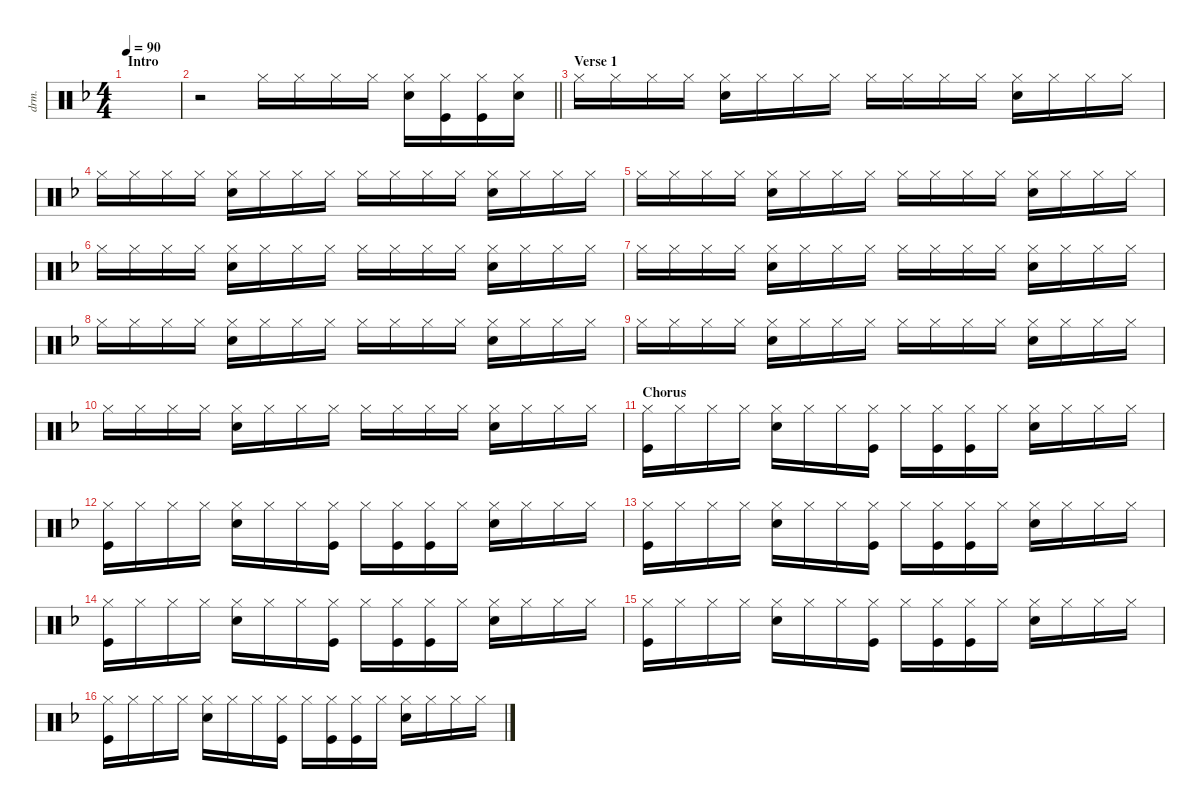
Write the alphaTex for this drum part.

\defaultSystemsLayout 4
\hideDynamics
\bracketExtendMode nobrackets
\track ("Drumkit" "drm.") {instrument percussion}
\staff {score}
\articulation defaults
\ts (4 4)
\section ("" "Intro")
\tempo 90
\clef neutral
\ks f
|
\barLineRight lightlight
r.2 "Hi-Hat (closed)"{acc forcenatural}.16 "Hi-Hat (closed)"{acc forcenatural}.16 "Hi-Hat (closed)"{acc forcenatural}.16 "Hi-Hat (closed)"{acc forcenatural}.16 ("Hi-Hat (closed)"{acc forcenatural} "Snare (hit) 2"{acc forcenatural}).16{dy mf} ("Hi-Hat (closed)"{acc forcenatural} "Kick (hit)"{acc forcenatural}).16 ("Hi-Hat (closed)"{acc forcenatural} "Kick (hit)"{acc forcenatural}).16 ("Hi-Hat (closed)"{acc forcenatural} "Snare (hit) 2"{acc forcenatural}).16 |
\section ("" "Verse 1")
"Hi-Hat (closed)"{acc forcenatural}.16 "Hi-Hat (closed)"{acc forcenatural}.16 "Hi-Hat (closed)"{acc forcenatural}.16 "Hi-Hat (closed)"{acc forcenatural}.16 ("Hi-Hat (closed)"{acc forcenatural} "Snare (hit) 2"{acc forcenatural}).16 "Hi-Hat (closed)"{acc forcenatural}.16 "Hi-Hat (closed)"{acc forcenatural}.16 "Hi-Hat (closed)"{acc forcenatural}.16 "Hi-Hat (closed)"{acc forcenatural}.16 "Hi-Hat (closed)"{acc forcenatural}.16 "Hi-Hat (closed)"{acc forcenatural}.16 "Hi-Hat (closed)"{acc forcenatural}.16 ("Hi-Hat (closed)"{acc forcenatural} "Snare (hit) 2"{acc forcenatural}).16 "Hi-Hat (closed)"{acc forcenatural}.16 "Hi-Hat (closed)"{acc forcenatural}.16 "Hi-Hat (closed)"{acc forcenatural}.16 |
"Hi-Hat (closed)"{acc forcenatural}.16 "Hi-Hat (closed)"{acc forcenatural}.16 "Hi-Hat (closed)"{acc forcenatural}.16 "Hi-Hat (closed)"{acc forcenatural}.16 ("Hi-Hat (closed)"{acc forcenatural} "Snare (hit) 2"{acc forcenatural}).16 "Hi-Hat (closed)"{acc forcenatural}.16 "Hi-Hat (closed)"{acc forcenatural}.16 "Hi-Hat (closed)"{acc forcenatural}.16 "Hi-Hat (closed)"{acc forcenatural}.16 "Hi-Hat (closed)"{acc forcenatural}.16 "Hi-Hat (closed)"{acc forcenatural}.16 "Hi-Hat (closed)"{acc forcenatural}.16 ("Hi-Hat (closed)"{acc forcenatural} "Snare (hit) 2"{acc forcenatural}).16 "Hi-Hat (closed)"{acc forcenatural}.16 "Hi-Hat (closed)"{acc forcenatural}.16 "Hi-Hat (closed)"{acc forcenatural}.16 |
"Hi-Hat (closed)"{acc forcenatural}.16 "Hi-Hat (closed)"{acc forcenatural}.16 "Hi-Hat (closed)"{acc forcenatural}.16 "Hi-Hat (closed)"{acc forcenatural}.16 ("Hi-Hat (closed)"{acc forcenatural} "Snare (hit) 2"{acc forcenatural}).16 "Hi-Hat (closed)"{acc forcenatural}.16 "Hi-Hat (closed)"{acc forcenatural}.16 "Hi-Hat (closed)"{acc forcenatural}.16 "Hi-Hat (closed)"{acc forcenatural}.16 "Hi-Hat (closed)"{acc forcenatural}.16 "Hi-Hat (closed)"{acc forcenatural}.16 "Hi-Hat (closed)"{acc forcenatural}.16 ("Hi-Hat (closed)"{acc forcenatural} "Snare (hit) 2"{acc forcenatural}).16 "Hi-Hat (closed)"{acc forcenatural}.16 "Hi-Hat (closed)"{acc forcenatural}.16 "Hi-Hat (closed)"{acc forcenatural}.16 |
"Hi-Hat (closed)"{acc forcenatural}.16 "Hi-Hat (closed)"{acc forcenatural}.16 "Hi-Hat (closed)"{acc forcenatural}.16 "Hi-Hat (closed)"{acc forcenatural}.16 ("Hi-Hat (closed)"{acc forcenatural} "Snare (hit) 2"{acc forcenatural}).16 "Hi-Hat (closed)"{acc forcenatural}.16 "Hi-Hat (closed)"{acc forcenatural}.16 "Hi-Hat (closed)"{acc forcenatural}.16 "Hi-Hat (closed)"{acc forcenatural}.16 "Hi-Hat (closed)"{acc forcenatural}.16 "Hi-Hat (closed)"{acc forcenatural}.16 "Hi-Hat (closed)"{acc forcenatural}.16 ("Hi-Hat (closed)"{acc forcenatural} "Snare (hit) 2"{acc forcenatural}).16 "Hi-Hat (closed)"{acc forcenatural}.16 "Hi-Hat (closed)"{acc forcenatural}.16 "Hi-Hat (closed)"{acc forcenatural}.16 |
"Hi-Hat (closed)"{acc forcenatural}.16 "Hi-Hat (closed)"{acc forcenatural}.16 "Hi-Hat (closed)"{acc forcenatural}.16 "Hi-Hat (closed)"{acc forcenatural}.16 ("Hi-Hat (closed)"{acc forcenatural} "Snare (hit) 2"{acc forcenatural}).16 "Hi-Hat (closed)"{acc forcenatural}.16 "Hi-Hat (closed)"{acc forcenatural}.16 "Hi-Hat (closed)"{acc forcenatural}.16 "Hi-Hat (closed)"{acc forcenatural}.16 "Hi-Hat (closed)"{acc forcenatural}.16 "Hi-Hat (closed)"{acc forcenatural}.16 "Hi-Hat (closed)"{acc forcenatural}.16 ("Hi-Hat (closed)"{acc forcenatural} "Snare (hit) 2"{acc forcenatural}).16 "Hi-Hat (closed)"{acc forcenatural}.16 "Hi-Hat (closed)"{acc forcenatural}.16 "Hi-Hat (closed)"{acc forcenatural}.16 |
"Hi-Hat (closed)"{acc forcenatural}.16 "Hi-Hat (closed)"{acc forcenatural}.16 "Hi-Hat (closed)"{acc forcenatural}.16 "Hi-Hat (closed)"{acc forcenatural}.16 ("Hi-Hat (closed)"{acc forcenatural} "Snare (hit) 2"{acc forcenatural}).16 "Hi-Hat (closed)"{acc forcenatural}.16 "Hi-Hat (closed)"{acc forcenatural}.16 "Hi-Hat (closed)"{acc forcenatural}.16 "Hi-Hat (closed)"{acc forcenatural}.16 "Hi-Hat (closed)"{acc forcenatural}.16 "Hi-Hat (closed)"{acc forcenatural}.16 "Hi-Hat (closed)"{acc forcenatural}.16 ("Hi-Hat (closed)"{acc forcenatural} "Snare (hit) 2"{acc forcenatural}).16 "Hi-Hat (closed)"{acc forcenatural}.16 "Hi-Hat (closed)"{acc forcenatural}.16 "Hi-Hat (closed)"{acc forcenatural}.16 |
"Hi-Hat (closed)"{acc forcenatural}.16 "Hi-Hat (closed)"{acc forcenatural}.16 "Hi-Hat (closed)"{acc forcenatural}.16 "Hi-Hat (closed)"{acc forcenatural}.16 ("Hi-Hat (closed)"{acc forcenatural} "Snare (hit) 2"{acc forcenatural}).16 "Hi-Hat (closed)"{acc forcenatural}.16 "Hi-Hat (closed)"{acc forcenatural}.16 "Hi-Hat (closed)"{acc forcenatural}.16 "Hi-Hat (closed)"{acc forcenatural}.16 "Hi-Hat (closed)"{acc forcenatural}.16 "Hi-Hat (closed)"{acc forcenatural}.16 "Hi-Hat (closed)"{acc forcenatural}.16 ("Hi-Hat (closed)"{acc forcenatural} "Snare (hit) 2"{acc forcenatural}).16 "Hi-Hat (closed)"{acc forcenatural}.16 "Hi-Hat (closed)"{acc forcenatural}.16 "Hi-Hat (closed)"{acc forcenatural}.16 |
"Hi-Hat (closed)"{acc forcenatural}.16 "Hi-Hat (closed)"{acc forcenatural}.16 "Hi-Hat (closed)"{acc forcenatural}.16 "Hi-Hat (closed)"{acc forcenatural}.16 ("Hi-Hat (closed)"{acc forcenatural} "Snare (hit) 2"{acc forcenatural}).16 "Hi-Hat (closed)"{acc forcenatural}.16 "Hi-Hat (closed)"{acc forcenatural}.16 "Hi-Hat (closed)"{acc forcenatural}.16 "Hi-Hat (closed)"{acc forcenatural}.16 "Hi-Hat (closed)"{acc forcenatural}.16 "Hi-Hat (closed)"{acc forcenatural}.16 "Hi-Hat (closed)"{acc forcenatural}.16 ("Hi-Hat (closed)"{acc forcenatural} "Snare (hit) 2"{acc forcenatural}).16 "Hi-Hat (closed)"{acc forcenatural}.16 "Hi-Hat (closed)"{acc forcenatural}.16 "Hi-Hat (closed)"{acc forcenatural}.16 |
\section ("" "Chorus")
("Hi-Hat (closed)"{acc forcenatural} "Kick (hit)"{acc forcenatural}).16 "Hi-Hat (closed)"{acc forcenatural}.16 "Hi-Hat (closed)"{acc forcenatural}.16 "Hi-Hat (closed)"{acc forcenatural}.16 ("Hi-Hat (closed)"{acc forcenatural} "Snare (hit) 2"{acc forcenatural}).16 "Hi-Hat (closed)"{acc forcenatural}.16 "Hi-Hat (closed)"{acc forcenatural}.16 ("Hi-Hat (closed)"{acc forcenatural} "Kick (hit)"{acc forcenatural}).16 "Hi-Hat (closed)"{acc forcenatural}.16 ("Hi-Hat (closed)"{acc forcenatural} "Kick (hit)"{acc forcenatural}).16 ("Hi-Hat (closed)"{acc forcenatural} "Kick (hit)"{acc forcenatural}).16 "Hi-Hat (closed)"{acc forcenatural}.16 ("Hi-Hat (closed)"{acc forcenatural} "Snare (hit) 2"{acc forcenatural}).16 "Hi-Hat (closed)"{acc forcenatural}.16 "Hi-Hat (closed)"{acc forcenatural}.16 "Hi-Hat (closed)"{acc forcenatural}.16 |
("Hi-Hat (closed)"{acc forcenatural} "Kick (hit)"{acc forcenatural}).16 "Hi-Hat (closed)"{acc forcenatural}.16 "Hi-Hat (closed)"{acc forcenatural}.16 "Hi-Hat (closed)"{acc forcenatural}.16 ("Hi-Hat (closed)"{acc forcenatural} "Snare (hit) 2"{acc forcenatural}).16 "Hi-Hat (closed)"{acc forcenatural}.16 "Hi-Hat (closed)"{acc forcenatural}.16 ("Hi-Hat (closed)"{acc forcenatural} "Kick (hit)"{acc forcenatural}).16 "Hi-Hat (closed)"{acc forcenatural}.16 ("Hi-Hat (closed)"{acc forcenatural} "Kick (hit)"{acc forcenatural}).16 ("Hi-Hat (closed)"{acc forcenatural} "Kick (hit)"{acc forcenatural}).16 "Hi-Hat (closed)"{acc forcenatural}.16 ("Hi-Hat (closed)"{acc forcenatural} "Snare (hit) 2"{acc forcenatural}).16 "Hi-Hat (closed)"{acc forcenatural}.16 "Hi-Hat (closed)"{acc forcenatural}.16 "Hi-Hat (closed)"{acc forcenatural}.16 |
("Hi-Hat (closed)"{acc forcenatural} "Kick (hit)"{acc forcenatural}).16 "Hi-Hat (closed)"{acc forcenatural}.16 "Hi-Hat (closed)"{acc forcenatural}.16 "Hi-Hat (closed)"{acc forcenatural}.16 ("Hi-Hat (closed)"{acc forcenatural} "Snare (hit) 2"{acc forcenatural}).16 "Hi-Hat (closed)"{acc forcenatural}.16 "Hi-Hat (closed)"{acc forcenatural}.16 ("Hi-Hat (closed)"{acc forcenatural} "Kick (hit)"{acc forcenatural}).16 "Hi-Hat (closed)"{acc forcenatural}.16 ("Hi-Hat (closed)"{acc forcenatural} "Kick (hit)"{acc forcenatural}).16 ("Hi-Hat (closed)"{acc forcenatural} "Kick (hit)"{acc forcenatural}).16 "Hi-Hat (closed)"{acc forcenatural}.16 ("Hi-Hat (closed)"{acc forcenatural} "Snare (hit) 2"{acc forcenatural}).16 "Hi-Hat (closed)"{acc forcenatural}.16 "Hi-Hat (closed)"{acc forcenatural}.16 "Hi-Hat (closed)"{acc forcenatural}.16 |
("Hi-Hat (closed)"{acc forcenatural} "Kick (hit)"{acc forcenatural}).16 "Hi-Hat (closed)"{acc forcenatural}.16 "Hi-Hat (closed)"{acc forcenatural}.16 "Hi-Hat (closed)"{acc forcenatural}.16 ("Hi-Hat (closed)"{acc forcenatural} "Snare (hit) 2"{acc forcenatural}).16 "Hi-Hat (closed)"{acc forcenatural}.16 "Hi-Hat (closed)"{acc forcenatural}.16 ("Hi-Hat (closed)"{acc forcenatural} "Kick (hit)"{acc forcenatural}).16 "Hi-Hat (closed)"{acc forcenatural}.16 ("Hi-Hat (closed)"{acc forcenatural} "Kick (hit)"{acc forcenatural}).16 ("Hi-Hat (closed)"{acc forcenatural} "Kick (hit)"{acc forcenatural}).16 "Hi-Hat (closed)"{acc forcenatural}.16 ("Hi-Hat (closed)"{acc forcenatural} "Snare (hit) 2"{acc forcenatural}).16 "Hi-Hat (closed)"{acc forcenatural}.16 "Hi-Hat (closed)"{acc forcenatural}.16 "Hi-Hat (closed)"{acc forcenatural}.16 |
("Hi-Hat (closed)"{acc forcenatural} "Kick (hit)"{acc forcenatural}).16 "Hi-Hat (closed)"{acc forcenatural}.16 "Hi-Hat (closed)"{acc forcenatural}.16 "Hi-Hat (closed)"{acc forcenatural}.16 ("Hi-Hat (closed)"{acc forcenatural} "Snare (hit) 2"{acc forcenatural}).16 "Hi-Hat (closed)"{acc forcenatural}.16 "Hi-Hat (closed)"{acc forcenatural}.16 ("Hi-Hat (closed)"{acc forcenatural} "Kick (hit)"{acc forcenatural}).16 "Hi-Hat (closed)"{acc forcenatural}.16 ("Hi-Hat (closed)"{acc forcenatural} "Kick (hit)"{acc forcenatural}).16 ("Hi-Hat (closed)"{acc forcenatural} "Kick (hit)"{acc forcenatural}).16 "Hi-Hat (closed)"{acc forcenatural}.16 ("Hi-Hat (closed)"{acc forcenatural} "Snare (hit) 2"{acc forcenatural}).16 "Hi-Hat (closed)"{acc forcenatural}.16 "Hi-Hat (closed)"{acc forcenatural}.16 "Hi-Hat (closed)"{acc forcenatural}.16 |
("Hi-Hat (closed)"{acc forcenatural} "Kick (hit)"{acc forcenatural}).16 "Hi-Hat (closed)"{acc forcenatural}.16 "Hi-Hat (closed)"{acc forcenatural}.16 "Hi-Hat (closed)"{acc forcenatural}.16 ("Hi-Hat (closed)"{acc forcenatural} "Snare (hit) 2"{acc forcenatural}).16 "Hi-Hat (closed)"{acc forcenatural}.16 "Hi-Hat (closed)"{acc forcenatural}.16 ("Hi-Hat (closed)"{acc forcenatural} "Kick (hit)"{acc forcenatural}).16 "Hi-Hat (closed)"{acc forcenatural}.16 ("Hi-Hat (closed)"{acc forcenatural} "Kick (hit)"{acc forcenatural}).16 ("Hi-Hat (closed)"{acc forcenatural} "Kick (hit)"{acc forcenatural}).16 "Hi-Hat (closed)"{acc forcenatural}.16 ("Hi-Hat (closed)"{acc forcenatural} "Snare (hit) 2"{acc forcenatural}).16 "Hi-Hat (closed)"{acc forcenatural}.16 "Hi-Hat (closed)"{acc forcenatural}.16 "Hi-Hat (closed)"{acc forcenatural}.16
